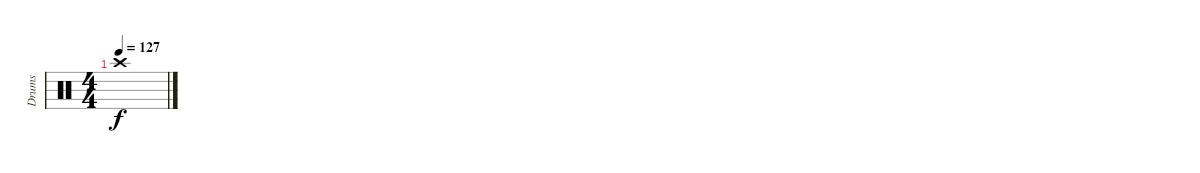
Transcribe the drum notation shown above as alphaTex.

\track ("Drums" "Drums") {instrument percussion}
\staff {score}
\articulation defaults
\ts (4 4)
\tempo 127
\clef neutral
\ks c "Crash high (hit)".1{dy f}
